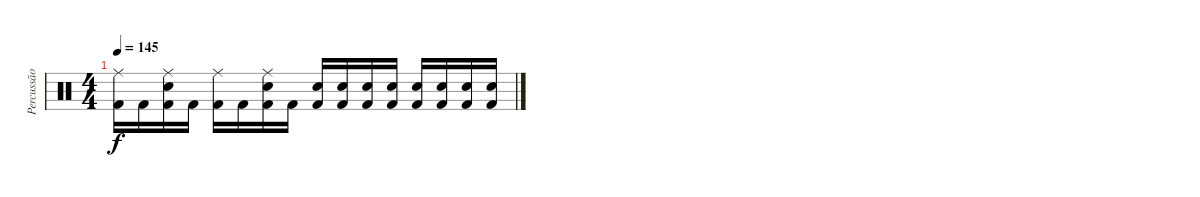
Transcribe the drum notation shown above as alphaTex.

\track ("Percussão" "Percussão") {instrument percussion}
\staff {score}
\articulation defaults
\ts (4 4)
\tempo 145
\clef neutral
\ks c
("Kick (hit) 2" "Ride (middle)").16{dy f} "Kick (hit) 2".16 ("Kick (hit) 2" "Snare (hit) 2" "Ride (middle)").16 "Kick (hit) 2".16 ("Kick (hit) 2" "Ride (middle)").16 "Kick (hit) 2".16 ("Kick (hit) 2" "Snare (hit) 2" "Ride (middle)").16 "Kick (hit) 2".16 ("Kick (hit) 2" "Snare (hit) 2").16 ("Kick (hit) 2" "Snare (hit) 2").16 ("Kick (hit) 2" "Snare (hit) 2").16 ("Kick (hit) 2" "Snare (hit) 2").16 ("Kick (hit) 2" "Snare (hit) 2").16 ("Kick (hit) 2" "Snare (hit) 2").16 ("Kick (hit) 2" "Snare (hit) 2").16 ("Kick (hit) 2" "Snare (hit) 2").16
